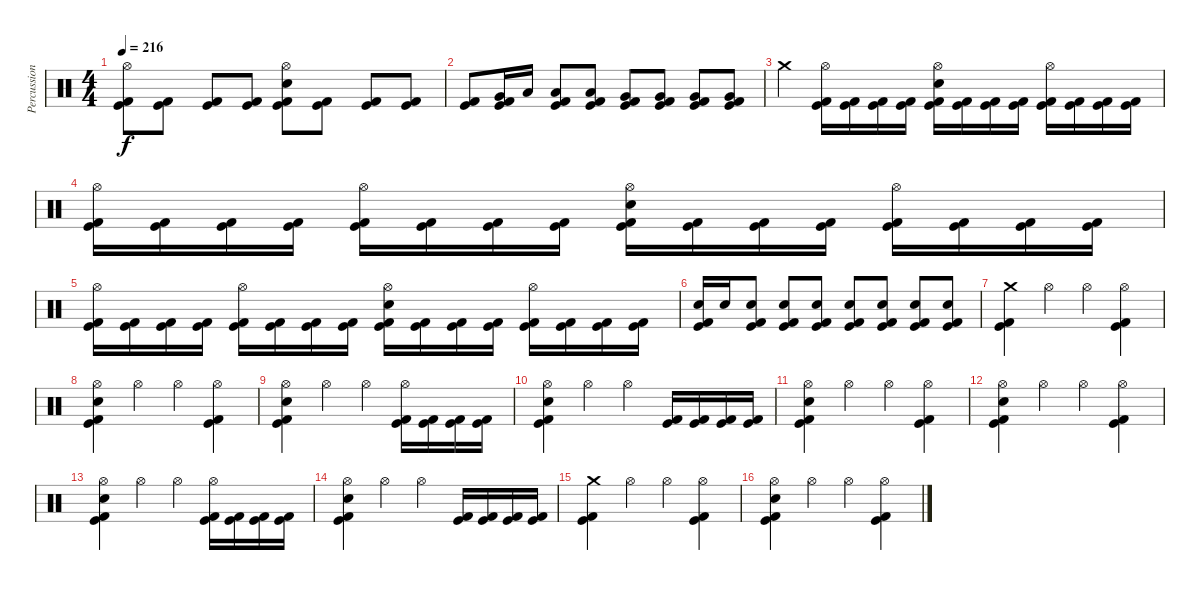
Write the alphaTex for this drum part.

\track ("Percussions" "Percussion") {instrument percussion}
\staff {score}
\articulation defaults
\ts (4 4)
\tempo 216
\clef neutral
\ks c
("Hi-Hat (open)" "Kick (hit)" "Kick (hit) 2").8{dy f} ("Kick (hit)" "Kick (hit) 2").8 ("Kick (hit)" "Kick (hit) 2").8 ("Kick (hit)" "Kick (hit) 2").8 ("Hi-Hat (open)" "Electric Snare (hit)" "Kick (hit)" "Kick (hit) 2").8 ("Kick (hit)" "Kick (hit) 2").8 ("Kick (hit)" "Kick (hit) 2").8 ("Kick (hit)" "Kick (hit) 2").8 |
("Kick (hit)" "Kick (hit) 2").8 ("Very Low Tom (hit)" "Kick (hit)" "Kick (hit) 2").16 "Low Tom (hit)".16 ("Low Tom (hit)" "Kick (hit)" "Kick (hit) 2").8 ("Low Tom (hit)" "Kick (hit)" "Kick (hit) 2").8 ("Very Low Tom (hit)" "Kick (hit)" "Kick (hit) 2").8 ("Very Low Tom (hit)" "Kick (hit)" "Kick (hit) 2").8 ("Very Low Tom (hit)" "Kick (hit)" "Kick (hit) 2").8 ("Very Low Tom (hit)" "Kick (hit)" "Kick (hit) 2").8 |
"Crash medium (hit)".4 ("Hi-Hat (open)" "Kick (hit)" "Kick (hit) 2").16 ("Kick (hit)" "Kick (hit) 2").16 ("Kick (hit)" "Kick (hit) 2").16 ("Kick (hit)" "Kick (hit) 2").16 ("Hi-Hat (open)" "Electric Snare (hit)" "Kick (hit)" "Kick (hit) 2").16 ("Kick (hit)" "Kick (hit) 2").16 ("Kick (hit)" "Kick (hit) 2").16 ("Kick (hit)" "Kick (hit) 2").16 ("Hi-Hat (open)" "Kick (hit)" "Kick (hit) 2").16 ("Kick (hit)" "Kick (hit) 2").16 ("Kick (hit)" "Kick (hit) 2").16 ("Kick (hit)" "Kick (hit) 2").16 |
("Hi-Hat (open)" "Kick (hit)" "Kick (hit) 2").16 ("Kick (hit)" "Kick (hit) 2").16 ("Kick (hit)" "Kick (hit) 2").16 ("Kick (hit)" "Kick (hit) 2").16 ("Hi-Hat (open)" "Kick (hit)" "Kick (hit) 2").16 ("Kick (hit)" "Kick (hit) 2").16 ("Kick (hit)" "Kick (hit) 2").16 ("Kick (hit)" "Kick (hit) 2").16 ("Hi-Hat (open)" "Electric Snare (hit)" "Kick (hit)" "Kick (hit) 2").16 ("Kick (hit)" "Kick (hit) 2").16 ("Kick (hit)" "Kick (hit) 2").16 ("Kick (hit)" "Kick (hit) 2").16 ("Hi-Hat (open)" "Kick (hit)" "Kick (hit) 2").16 ("Kick (hit)" "Kick (hit) 2").16 ("Kick (hit)" "Kick (hit) 2").16 ("Kick (hit)" "Kick (hit) 2").16 |
("Hi-Hat (open)" "Kick (hit)" "Kick (hit) 2").16 ("Kick (hit)" "Kick (hit) 2").16 ("Kick (hit)" "Kick (hit) 2").16 ("Kick (hit)" "Kick (hit) 2").16 ("Hi-Hat (open)" "Kick (hit)" "Kick (hit) 2").16 ("Kick (hit)" "Kick (hit) 2").16 ("Kick (hit)" "Kick (hit) 2").16 ("Kick (hit)" "Kick (hit) 2").16 ("Hi-Hat (open)" "Electric Snare (hit)" "Kick (hit)" "Kick (hit) 2").16 ("Kick (hit)" "Kick (hit) 2").16 ("Kick (hit)" "Kick (hit) 2").16 ("Kick (hit)" "Kick (hit) 2").16 ("Hi-Hat (open)" "Kick (hit)" "Kick (hit) 2").16 ("Kick (hit)" "Kick (hit) 2").16 ("Kick (hit)" "Kick (hit) 2").16 ("Kick (hit)" "Kick (hit) 2").16 |
("Electric Snare (hit)" "Kick (hit)" "Kick (hit) 2").16 "Electric Snare (hit)".16 ("Electric Snare (hit)" "Kick (hit)" "Kick (hit) 2").8 ("Electric Snare (hit)" "Kick (hit)" "Kick (hit) 2").8 ("Electric Snare (hit)" "Kick (hit)" "Kick (hit) 2").8 ("Electric Snare (hit)" "Kick (hit)" "Kick (hit) 2").8 ("Electric Snare (hit)" "Kick (hit)" "Kick (hit) 2").8 ("Electric Snare (hit)" "Kick (hit)" "Kick (hit) 2").8 ("Electric Snare (hit)" "Kick (hit)" "Kick (hit) 2").8 |
("Crash medium (hit)" "Kick (hit)" "Kick (hit) 2").4 "Hi-Hat (open)".4 "Hi-Hat (open)".4 ("Hi-Hat (open)" "Kick (hit)" "Kick (hit) 2").4 |
("Hi-Hat (open)" "Electric Snare (hit)" "Kick (hit)" "Kick (hit) 2").4 "Hi-Hat (open)".4 "Hi-Hat (open)".4 ("Hi-Hat (open)" "Kick (hit)" "Kick (hit) 2").4 |
("Hi-Hat (open)" "Electric Snare (hit)" "Kick (hit)" "Kick (hit) 2").4 "Hi-Hat (open)".4 "Hi-Hat (open)".4 ("Hi-Hat (open)" "Kick (hit)" "Kick (hit) 2").16 ("Kick (hit)" "Kick (hit) 2").16 ("Kick (hit)" "Kick (hit) 2").16 ("Kick (hit)" "Kick (hit) 2").16 |
("Hi-Hat (open)" "Electric Snare (hit)" "Kick (hit)" "Kick (hit) 2").4 "Hi-Hat (open)".4 "Hi-Hat (open)".4 ("Kick (hit)" "Kick (hit) 2").16 ("Kick (hit)" "Kick (hit) 2").16 ("Kick (hit)" "Kick (hit) 2").16 ("Kick (hit)" "Kick (hit) 2").16 |
("Hi-Hat (open)" "Electric Snare (hit)" "Kick (hit)" "Kick (hit) 2").4 "Hi-Hat (open)".4 "Hi-Hat (open)".4 ("Hi-Hat (open)" "Kick (hit)" "Kick (hit) 2").4 |
("Hi-Hat (open)" "Electric Snare (hit)" "Kick (hit)" "Kick (hit) 2").4 "Hi-Hat (open)".4 "Hi-Hat (open)".4 ("Hi-Hat (open)" "Kick (hit)" "Kick (hit) 2").4 |
("Hi-Hat (open)" "Electric Snare (hit)" "Kick (hit)" "Kick (hit) 2").4 "Hi-Hat (open)".4 "Hi-Hat (open)".4 ("Hi-Hat (open)" "Kick (hit)" "Kick (hit) 2").16 ("Kick (hit)" "Kick (hit) 2").16 ("Kick (hit)" "Kick (hit) 2").16 ("Kick (hit)" "Kick (hit) 2").16 |
("Hi-Hat (open)" "Electric Snare (hit)" "Kick (hit)" "Kick (hit) 2").4 "Hi-Hat (open)".4 "Hi-Hat (open)".4 ("Kick (hit)" "Kick (hit) 2").16 ("Kick (hit)" "Kick (hit) 2").16 ("Kick (hit)" "Kick (hit) 2").16 ("Kick (hit)" "Kick (hit) 2").16 |
("Crash medium (hit)" "Kick (hit)" "Kick (hit) 2").4 "Hi-Hat (open)".4 "Hi-Hat (open)".4 ("Hi-Hat (open)" "Kick (hit)" "Kick (hit) 2").4 |
("Hi-Hat (open)" "Electric Snare (hit)" "Kick (hit)" "Kick (hit) 2").4 "Hi-Hat (open)".4 "Hi-Hat (open)".4 ("Hi-Hat (open)" "Kick (hit)" "Kick (hit) 2").4
